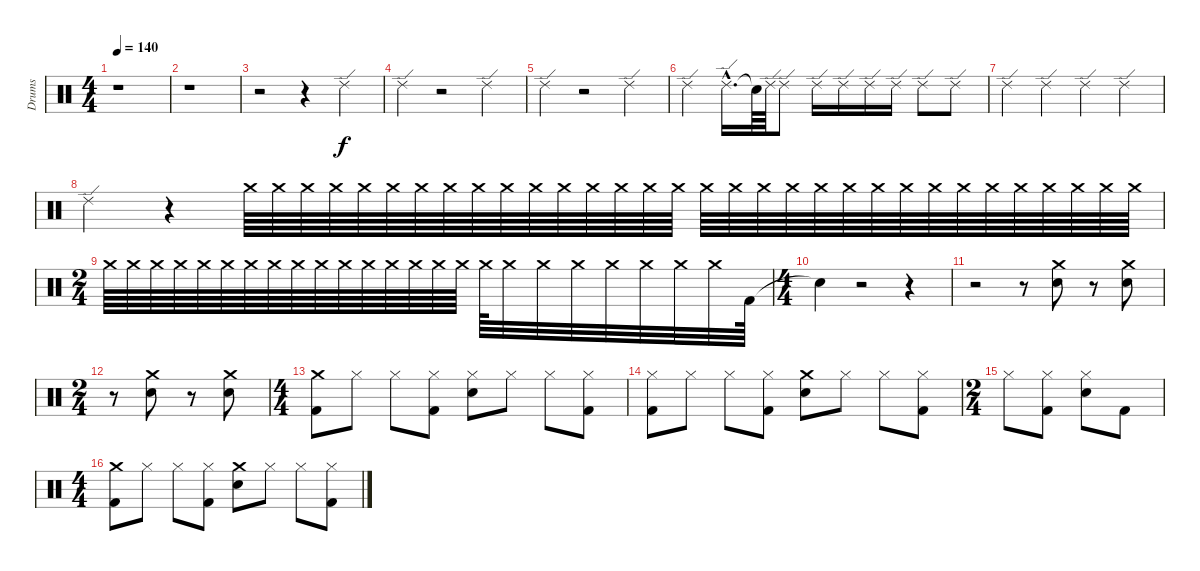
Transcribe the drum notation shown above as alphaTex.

\track ("Drums" "Drums") {instrument percussion}
\staff {score}
\articulation defaults
\ts (4 4)
\tempo 140
\clef neutral
\ks c
r.1{dy f} |
r.1 |
r.2 r.4 "Ride (edge) 2".4 |
"Ride (edge) 2".4 r.2 "Ride (edge) 2".4 |
"Ride (edge) 2".4 r.2 "Ride (edge) 2".4 |
"Ride (edge) 2".4 "Ride (edge) 2"{hac}.16{d} "Snare (hit)"{t}.64 "Ride (edge) 2".64 "Ride (edge) 2".8 "Ride (edge) 2".16 "Ride (edge) 2".16 "Ride (edge) 2".16 "Ride (edge) 2".16 "Ride (edge) 2".8 "Ride (edge) 2".8 |
"Ride (edge) 2".4 "Ride (edge) 2".4 "Ride (edge) 2".4 "Ride (edge) 2".4 |
"Ride (edge) 2".4 r.4 "Crash medium (hit)".64 "Crash medium (hit)".64 "Crash medium (hit)".64 "Crash medium (hit)".64 "Crash medium (hit)".64 "Crash medium (hit)".64 "Crash medium (hit)".64 "Crash medium (hit)".64 "Crash medium (hit)".64 "Crash medium (hit)".64 "Crash medium (hit)".64 "Crash medium (hit)".64 "Crash medium (hit)".64 "Crash medium (hit)".64 "Crash medium (hit)".64 "Crash medium (hit)".64 "Crash medium (hit)".64 "Crash medium (hit)".64 "Crash medium (hit)".64 "Crash medium (hit)".64 "Crash medium (hit)".64 "Crash medium (hit)".64 "Crash medium (hit)".64 "Crash medium (hit)".64 "Crash medium (hit)".64 "Crash medium (hit)".64 "Crash medium (hit)".64 "Crash medium (hit)".64 "Crash medium (hit)".64 "Crash medium (hit)".64 "Crash medium (hit)".64 "Crash medium (hit)".64 |
\ts (2 4)
"Crash medium (hit)".64 "Crash medium (hit)".64 "Crash medium (hit)".64 "Crash medium (hit)".64 "Crash medium (hit)".64 "Crash medium (hit)".64 "Crash medium (hit)".64 "Crash medium (hit)".64 "Crash medium (hit)".64 "Crash medium (hit)".64 "Crash medium (hit)".64 "Crash medium (hit)".64 "Crash medium (hit)".64 "Crash medium (hit)".64 "Crash medium (hit)".64 "Crash medium (hit)".64 "Crash medium (hit)".64 "Crash medium (hit)".32 "Crash medium (hit)".32 "Crash medium (hit)".32 "Crash medium (hit)".32 "Crash medium (hit)".32 "Crash medium (hit)".32 "Crash medium (hit)".32 "Kick (hit) 2".64 |
\ts (4 4)
"Snare (hit)"{t}.4 r.2 r.4 |
r.2 r.8 ("Snare (hit) 2" "Crash medium (hit)").8 r.8 ("Snare (hit) 2" "Crash medium (hit)").8 |
\ts (2 4)
r.8 ("Snare (hit) 2" "Crash medium (hit)").8 r.8 ("Snare (hit) 2" "Crash medium (hit)").8 |
\ts (4 4)
("Kick (hit) 2" "Crash medium (hit)").8 "Hi-Hat (closed)".8 "Hi-Hat (closed)".8 ("Kick (hit) 2" "Hi-Hat (closed)").8 ("Snare (hit) 2" "Hi-Hat (closed)").8 "Hi-Hat (closed)".8 "Hi-Hat (closed)".8 ("Kick (hit) 2" "Hi-Hat (closed)").8 |
("Kick (hit) 2" "Hi-Hat (closed)").8 "Hi-Hat (closed)".8 "Hi-Hat (closed)".8 ("Kick (hit) 2" "Hi-Hat (closed)").8 ("Crash medium (hit)" "Snare (hit) 2").8 "Hi-Hat (closed)".8 "Hi-Hat (closed)".8 ("Kick (hit) 2" "Hi-Hat (closed)").8 |
\ts (2 4)
"Hi-Hat (closed)".8 ("Kick (hit) 2" "Hi-Hat (closed)").8 ("Hi-Hat (closed)" "Snare (hit) 2").8 "Kick (hit) 2".8 |
\ts (4 4)
("Crash medium (hit)" "Kick (hit) 2").8 "Hi-Hat (closed)".8 "Hi-Hat (closed)".8 ("Hi-Hat (closed)" "Kick (hit) 2").8 ("Crash medium (hit)" "Snare (hit) 2").8 "Hi-Hat (closed)".8 "Hi-Hat (closed)".8 ("Hi-Hat (closed)" "Kick (hit) 2").8
